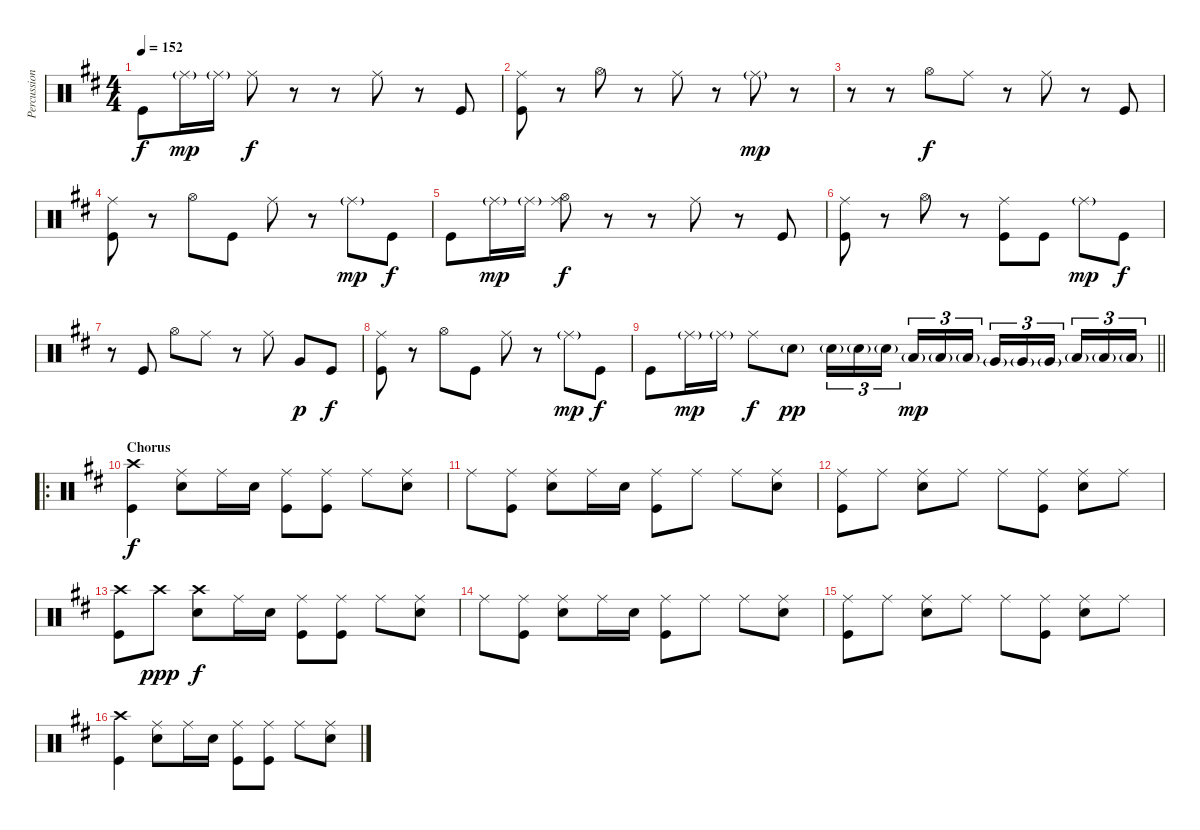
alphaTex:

\track ("Percussion" "Percussion") {instrument percussion}
\staff {score}
\articulation defaults
\ts (4 4)
\tempo 152
\clef neutral
\ks d "Kick (hit)".8{dy f} "Ride (middle)"{g}.16{dy mp} "Ride (middle)"{g}.16 "Ride (middle)".8{dy f}
r.8 r.8 "Ride (middle)".8 r.8 "Kick (hit)".8 |
("Ride (middle)" "Kick (hit)").8 r.8 "Hi-Hat (open)".8 r.8 "Ride (middle)".8 r.8 "Ride (middle)"{g}.8{dy mp} r.8 |
r.8 r.8 "Hi-Hat (open)".8{dy f} "Ride (middle)".8 r.8 "Ride (middle)".8 r.8 "Kick (hit)".8 |
("Ride (middle)" "Kick (hit)").8 r.8 "Hi-Hat (open)".8 "Kick (hit)".8 "Ride (middle)".8 r.8 "Ride (middle)"{g}.8{dy mp} "Kick (hit)".8{dy f} |
"Kick (hit)".8 "Ride (middle)"{g}.16{dy mp} "Ride (middle)"{g}.16 ("Hi-Hat (open)" "Ride (middle)").8{dy f} r.8 r.8 "Ride (middle)".8 r.8 "Kick (hit)".8 |
("Ride (middle)" "Kick (hit)").8 r.8 "Hi-Hat (open)".8 r.8 ("Ride (middle)" "Kick (hit)").8 "Kick (hit)".8 "Ride (middle)"{g}.8{dy mp} "Kick (hit)".8{dy f} |
r.8 "Kick (hit)".8 "Hi-Hat (open)".8 "Ride (middle)".8 r.8 "Ride (middle)".8 "Very Low Tom (hit)".8{dy p} "Kick (hit)".8{dy f} |
("Ride (middle)" "Kick (hit)").8 r.8 "Hi-Hat (open)".8 "Kick (hit)".8 "Ride (middle)".8 r.8 "Ride (middle)"{g}.8{dy mp} "Kick (hit)".8{dy f} |
\barLineRight lightlight "Kick (hit)".8 "Ride (middle)"{g}.16{dy mp} "Ride (middle)"{g}.16 "Ride (middle)".8{dy f} "Snare (hit) 2"{g}.8{dy pp} "Snare (hit) 2"{g}.16{tu (3 2)} "Snare (hit) 2"{g}.16{tu (3 2)} "Snare (hit) 2"{g}.16{tu (3 2) beam splitsecondary} "Low Tom (hit)"{g}.16{tu (3 2) dy mp} "Low Tom (hit)"{g}.16{tu (3 2)} "Low Tom (hit)"{g}.16{tu (3 2)} "Very Low Tom (hit)"{g}.16{tu (3 2)} "Very Low Tom (hit)"{g}.16{tu (3 2)} "Very Low Tom (hit)"{g}.16{tu (3 2) beam splitsecondary} "Low Floor Tom (hit)"{g}.16{tu (3 2)} "Low Floor Tom (hit)"{g}.16{tu (3 2)} "Low Floor Tom (hit)"{g}.16{tu (3 2)}
|
\ro
\section ("" "Chorus")
("Crash high (hit)" "Kick (hit)").4{dy f} ("Ride (middle)" "Snare (hit) 2").8 "Ride (middle)".16 "Snare (hit) 2".16 ("Ride (middle)" "Kick (hit)").8 ("Ride (middle)" "Kick (hit)").8 "Ride (middle)".8 ("Ride (middle)" "Snare (hit) 2").8 |
"Ride (middle)".8 ("Ride (middle)" "Kick (hit)").8 ("Ride (middle)" "Snare (hit) 2").8 "Ride (middle)".16 "Snare (hit) 2".16 ("Ride (middle)" "Kick (hit)").8 "Ride (middle)".8 "Ride (middle)".8 ("Ride (middle)" "Snare (hit) 2").8 |
("Ride (middle)" "Kick (hit)").8 "Ride (middle)".8 ("Ride (middle)" "Snare (hit) 2").8 "Ride (middle)".8 "Ride (middle)".8 ("Ride (middle)" "Kick (hit)").8 ("Ride (middle)" "Snare (hit) 2").8 "Ride (middle)".8 |
("Crash high (hit)" "Kick (hit)").8 "Crash high (hit)".8{dy ppp} ("Crash high (hit)" "Snare (hit) 2").8{dy f} "Ride (middle)".16 "Snare (hit) 2".16 ("Ride (middle)" "Kick (hit)").8 ("Ride (middle)" "Kick (hit)").8 "Ride (middle)".8 ("Ride (middle)" "Snare (hit) 2").8 |
"Ride (middle)".8 ("Ride (middle)" "Kick (hit)").8 ("Ride (middle)" "Snare (hit) 2").8 "Ride (middle)".16 "Snare (hit) 2".16 ("Ride (middle)" "Kick (hit)").8 "Ride (middle)".8 "Ride (middle)".8 ("Ride (middle)" "Snare (hit) 2").8 |
("Ride (middle)" "Kick (hit)").8 "Ride (middle)".8 ("Ride (middle)" "Snare (hit) 2").8 "Ride (middle)".8 "Ride (middle)".8 ("Ride (middle)" "Kick (hit)").8 ("Ride (middle)" "Snare (hit) 2").8 "Ride (middle)".8 |
("Crash high (hit)" "Kick (hit)").4 ("Ride (middle)" "Snare (hit) 2").8 "Ride (middle)".16 "Snare (hit) 2".16 ("Ride (middle)" "Kick (hit)").8 ("Ride (middle)" "Kick (hit)").8 "Ride (middle)".8 ("Ride (middle)" "Snare (hit) 2").8
